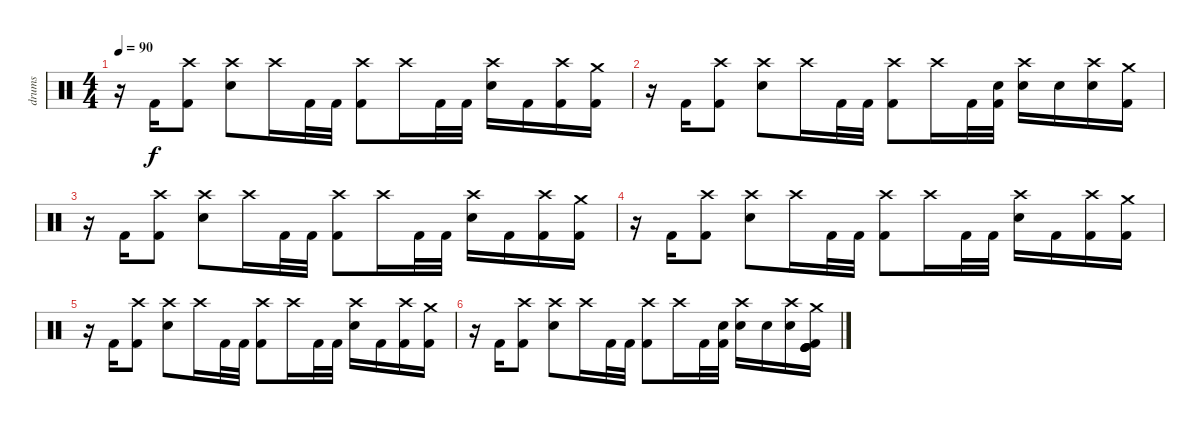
\track ("drums" "drums") {instrument percussion}
\staff {score}
\articulation defaults
\ts (4 4)
\tempo 90
\clef neutral
\ks c
r.16{dy f} "Kick (hit) 2".16 ("Crash high (hit)" "Kick (hit) 2").8 ("Crash high (hit)" "Electric Snare (hit)").8 "Crash high (hit)".16 "Kick (hit) 2".32 "Kick (hit) 2".32 ("Crash high (hit)" "Kick (hit) 2").8 "Crash high (hit)".16 "Kick (hit) 2".32 "Kick (hit) 2".32 ("Crash high (hit)" "Electric Snare (hit)").16 "Kick (hit) 2".16 ("Crash high (hit)" "Kick (hit) 2").16 ("Crash medium (hit)" "Kick (hit) 2").16 |
r.16 "Kick (hit) 2".16 ("Crash high (hit)" "Kick (hit) 2").8 ("Crash high (hit)" "Electric Snare (hit)").8 "Crash high (hit)".16 "Kick (hit) 2".32 "Kick (hit) 2".32 ("Crash high (hit)" "Kick (hit) 2").8 "Crash high (hit)".16 "Kick (hit) 2".32 ("Electric Snare (hit)" "Kick (hit) 2").32 ("Crash high (hit)" "Electric Snare (hit)").16 "Electric Snare (hit)".16 ("Crash high (hit)" "Electric Snare (hit)").16 ("Crash medium (hit)" "Kick (hit) 2").16 |
r.16 "Kick (hit) 2".16 ("Crash high (hit)" "Kick (hit) 2").8 ("Crash high (hit)" "Electric Snare (hit)").8 "Crash high (hit)".16 "Kick (hit) 2".32 "Kick (hit) 2".32 ("Crash high (hit)" "Kick (hit) 2").8 "Crash high (hit)".16 "Kick (hit) 2".32 "Kick (hit) 2".32 ("Crash high (hit)" "Electric Snare (hit)").16 "Kick (hit) 2".16 ("Crash high (hit)" "Kick (hit) 2").16 ("Crash medium (hit)" "Kick (hit) 2").16 |
r.16 "Kick (hit) 2".16 ("Crash high (hit)" "Kick (hit) 2").8 ("Crash high (hit)" "Electric Snare (hit)").8 "Crash high (hit)".16 "Kick (hit) 2".32 "Kick (hit) 2".32 ("Crash high (hit)" "Kick (hit) 2").8 "Crash high (hit)".16 "Kick (hit) 2".32 "Kick (hit) 2".32 ("Crash high (hit)" "Electric Snare (hit)").16 "Kick (hit) 2".16 ("Crash high (hit)" "Kick (hit) 2").16 ("Crash medium (hit)" "Kick (hit) 2").16 |
r.16 "Kick (hit) 2".16 ("Crash high (hit)" "Kick (hit) 2").8 ("Crash high (hit)" "Electric Snare (hit)").8 "Crash high (hit)".16 "Kick (hit) 2".32 "Kick (hit) 2".32 ("Crash high (hit)" "Kick (hit) 2").8 "Crash high (hit)".16 "Kick (hit) 2".32 "Kick (hit) 2".32 ("Crash high (hit)" "Electric Snare (hit)").16 "Kick (hit) 2".16 ("Crash high (hit)" "Kick (hit) 2").16 ("Crash medium (hit)" "Kick (hit) 2").16 |
r.16 "Kick (hit) 2".16 ("Crash high (hit)" "Kick (hit) 2").8 ("Crash high (hit)" "Electric Snare (hit)").8 "Crash high (hit)".16 "Kick (hit) 2".32 "Kick (hit) 2".32 ("Crash high (hit)" "Kick (hit) 2").8 "Crash high (hit)".16 "Kick (hit) 2".32 ("Electric Snare (hit)" "Kick (hit) 2").32 ("Crash high (hit)" "Electric Snare (hit)").16 "Electric Snare (hit)".16 ("Crash high (hit)" "Electric Snare (hit)").16 ("Crash medium (hit)" "Kick (hit)" "Kick (hit)" "Kick (hit)" "Kick (hit) 2").16
